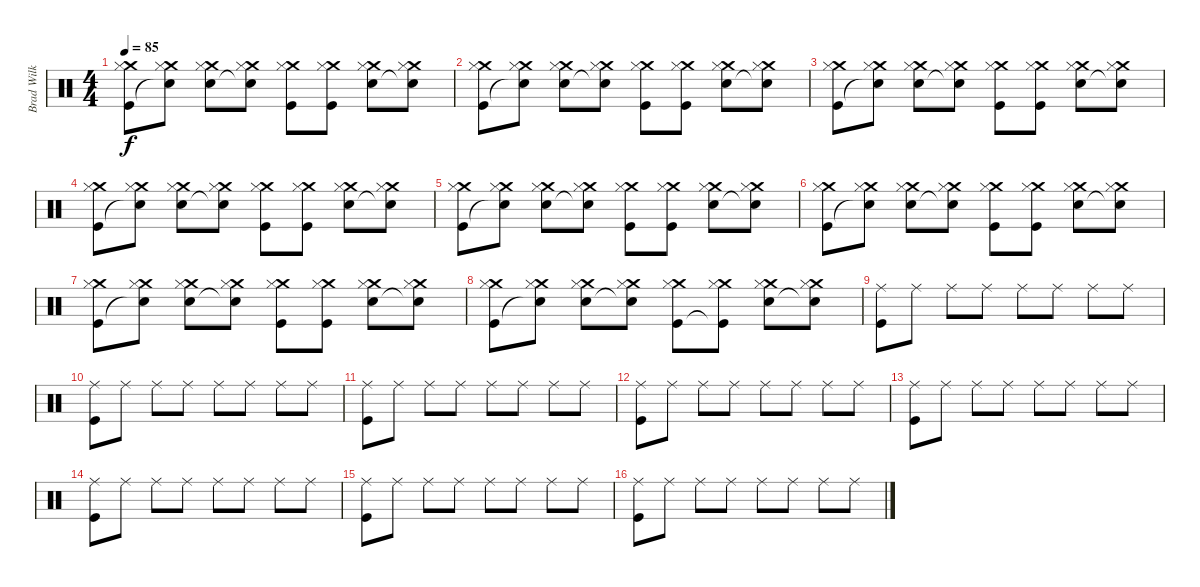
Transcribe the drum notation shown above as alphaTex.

\track ("Brad Wilk" "Brad Wilk") {instrument percussion}
\staff {score}
\articulation defaults
\ts (4 4)
\tempo 85
\clef neutral
\ks c
("Crash medium (hit)" "Hi-Hat (closed)" "Kick (hit)").8{dy f} ("Crash medium (hit)" "Hi-Hat (closed)" "Snare (hit)"{t}).8 ("Crash medium (hit)" "Hi-Hat (closed)" "Snare (hit) 2").8 ("Crash medium (hit)" "Hi-Hat (closed)" "Snare (hit)"{t}).8 ("Crash medium (hit)" "Hi-Hat (closed)" "Kick (hit)").8 ("Crash medium (hit)" "Hi-Hat (closed)" "Kick (hit)").8 ("Crash medium (hit)" "Hi-Hat (closed)" "Snare (hit) 2").8 ("Crash medium (hit)" "Hi-Hat (closed)" "Snare (hit)"{t}).8 |
("Crash medium (hit)" "Hi-Hat (closed)" "Kick (hit)").8 ("Crash medium (hit)" "Hi-Hat (closed)" "Snare (hit)"{t}).8 ("Crash medium (hit)" "Hi-Hat (closed)" "Snare (hit) 2").8 ("Crash medium (hit)" "Hi-Hat (closed)" "Snare (hit)"{t}).8 ("Crash medium (hit)" "Hi-Hat (closed)" "Kick (hit)").8 ("Crash medium (hit)" "Hi-Hat (closed)" "Kick (hit)").8 ("Crash medium (hit)" "Hi-Hat (closed)" "Snare (hit) 2").8 ("Crash medium (hit)" "Hi-Hat (closed)" "Snare (hit)"{t}).8 |
("Crash medium (hit)" "Hi-Hat (closed)" "Kick (hit)").8 ("Crash medium (hit)" "Hi-Hat (closed)" "Snare (hit)"{t}).8 ("Crash medium (hit)" "Hi-Hat (closed)" "Snare (hit) 2").8 ("Crash medium (hit)" "Hi-Hat (closed)" "Snare (hit)"{t}).8 ("Crash medium (hit)" "Hi-Hat (closed)" "Kick (hit)").8 ("Crash medium (hit)" "Hi-Hat (closed)" "Kick (hit)").8 ("Crash medium (hit)" "Hi-Hat (closed)" "Snare (hit) 2").8 ("Crash medium (hit)" "Hi-Hat (closed)" "Snare (hit)"{t}).8 |
("Crash medium (hit)" "Hi-Hat (closed)" "Kick (hit)").8 ("Crash medium (hit)" "Hi-Hat (closed)" "Snare (hit)"{t}).8 ("Crash medium (hit)" "Hi-Hat (closed)" "Snare (hit) 2").8 ("Crash medium (hit)" "Hi-Hat (closed)" "Snare (hit)"{t}).8 ("Crash medium (hit)" "Hi-Hat (closed)" "Kick (hit)").8 ("Crash medium (hit)" "Hi-Hat (closed)" "Kick (hit)").8 ("Crash medium (hit)" "Hi-Hat (closed)" "Snare (hit) 2").8 ("Crash medium (hit)" "Hi-Hat (closed)" "Snare (hit)"{t}).8 |
("Crash medium (hit)" "Hi-Hat (closed)" "Kick (hit)").8 ("Crash medium (hit)" "Hi-Hat (closed)" "Snare (hit)"{t}).8 ("Crash medium (hit)" "Hi-Hat (closed)" "Snare (hit) 2").8 ("Crash medium (hit)" "Hi-Hat (closed)" "Snare (hit)"{t}).8 ("Crash medium (hit)" "Hi-Hat (closed)" "Kick (hit)").8 ("Crash medium (hit)" "Hi-Hat (closed)" "Kick (hit)").8 ("Crash medium (hit)" "Hi-Hat (closed)" "Snare (hit) 2").8 ("Crash medium (hit)" "Hi-Hat (closed)" "Snare (hit)"{t}).8 |
("Crash medium (hit)" "Hi-Hat (closed)" "Kick (hit)").8 ("Crash medium (hit)" "Hi-Hat (closed)" "Snare (hit)"{t}).8 ("Crash medium (hit)" "Hi-Hat (closed)" "Snare (hit) 2").8 ("Crash medium (hit)" "Hi-Hat (closed)" "Snare (hit)"{t}).8 ("Crash medium (hit)" "Hi-Hat (closed)" "Kick (hit)").8 ("Crash medium (hit)" "Hi-Hat (closed)" "Kick (hit)").8 ("Crash medium (hit)" "Hi-Hat (closed)" "Snare (hit) 2").8 ("Crash medium (hit)" "Hi-Hat (closed)" "Snare (hit)"{t}).8 |
("Crash medium (hit)" "Hi-Hat (closed)" "Kick (hit)").8 ("Crash medium (hit)" "Hi-Hat (closed)" "Snare (hit)"{t}).8 ("Crash medium (hit)" "Hi-Hat (closed)" "Snare (hit) 2").8 ("Crash medium (hit)" "Hi-Hat (closed)" "Snare (hit)"{t}).8 ("Crash medium (hit)" "Hi-Hat (closed)" "Kick (hit)").8 ("Crash medium (hit)" "Hi-Hat (closed)" "Kick (hit)").8 ("Crash medium (hit)" "Hi-Hat (closed)" "Snare (hit) 2").8 ("Crash medium (hit)" "Hi-Hat (closed)" "Snare (hit)"{t}).8 |
("Crash medium (hit)" "Hi-Hat (closed)" "Kick (hit)").8 ("Crash medium (hit)" "Hi-Hat (closed)" "Snare (hit)"{t}).8 ("Crash medium (hit)" "Hi-Hat (closed)" "Snare (hit) 2").8 ("Crash medium (hit)" "Hi-Hat (closed)" "Snare (hit)"{t}).8 ("Crash medium (hit)" "Hi-Hat (closed)" "Kick (hit)").8 ("Crash medium (hit)" "Hi-Hat (closed)" "Kick (hit)"{t}).8 ("Crash medium (hit)" "Hi-Hat (closed)" "Snare (hit) 2").8 ("Crash medium (hit)" "Hi-Hat (closed)" "Snare (hit)"{t}).8 |
("Ride (middle)" "Kick (hit)").8 "Ride (middle)".8 "Ride (middle)".8 "Ride (middle)".8 "Ride (middle)".8 "Ride (middle)".8 "Ride (middle)".8 "Ride (middle)".8 |
("Ride (middle)" "Kick (hit)").8 "Ride (middle)".8 "Ride (middle)".8 "Ride (middle)".8 "Ride (middle)".8 "Ride (middle)".8 "Ride (middle)".8 "Ride (middle)".8 |
("Ride (middle)" "Kick (hit)").8 "Ride (middle)".8 "Ride (middle)".8 "Ride (middle)".8 "Ride (middle)".8 "Ride (middle)".8 "Ride (middle)".8 "Ride (middle)".8 |
("Ride (middle)" "Kick (hit)").8 "Ride (middle)".8 "Ride (middle)".8 "Ride (middle)".8 "Ride (middle)".8 "Ride (middle)".8 "Ride (middle)".8 "Ride (middle)".8 |
("Ride (middle)" "Kick (hit)").8 "Ride (middle)".8 "Ride (middle)".8 "Ride (middle)".8 "Ride (middle)".8 "Ride (middle)".8 "Ride (middle)".8 "Ride (middle)".8 |
("Ride (middle)" "Kick (hit)").8 "Ride (middle)".8 "Ride (middle)".8 "Ride (middle)".8 "Ride (middle)".8 "Ride (middle)".8 "Ride (middle)".8 "Ride (middle)".8 |
("Ride (middle)" "Kick (hit)").8 "Ride (middle)".8 "Ride (middle)".8 "Ride (middle)".8 "Ride (middle)".8 "Ride (middle)".8 "Ride (middle)".8 "Ride (middle)".8 |
("Ride (middle)" "Kick (hit)").8 "Ride (middle)".8 "Ride (middle)".8 "Ride (middle)".8 "Ride (middle)".8 "Ride (middle)".8 "Ride (middle)".8 "Ride (middle)".8
